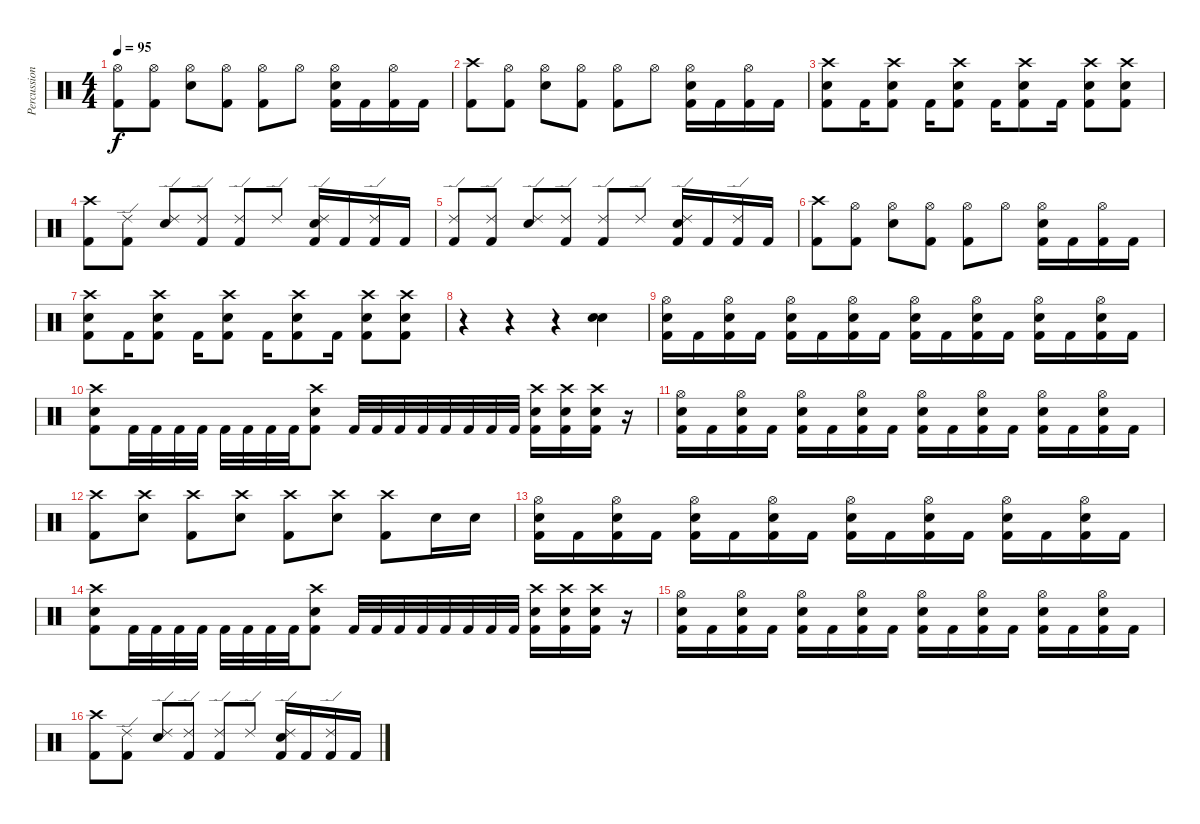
\track ("Percussions" "Percussion") {instrument percussion}
\staff {score}
\articulation defaults
\ts (4 4)
\tempo 95
\clef neutral
\ks c
("Hi-Hat (open)" "Kick (hit) 2").8{dy f} ("Hi-Hat (open)" "Kick (hit) 2").8 ("Hi-Hat (open)" "Snare (hit) 2").8 ("Hi-Hat (open)" "Kick (hit) 2").8 ("Hi-Hat (open)" "Kick (hit) 2").8 "Hi-Hat (open)".8 ("Snare (hit) 2" "Hi-Hat (open)" "Kick (hit) 2").16 "Kick (hit) 2".16 ("Hi-Hat (open)" "Kick (hit) 2").16 "Kick (hit) 2".16 |
("Crash high (hit)" "Kick (hit) 2").8 ("Hi-Hat (open)" "Kick (hit) 2").8 ("Hi-Hat (open)" "Snare (hit) 2").8 ("Hi-Hat (open)" "Kick (hit) 2").8 ("Hi-Hat (open)" "Kick (hit) 2").8 "Hi-Hat (open)".8 ("Snare (hit) 2" "Hi-Hat (open)" "Kick (hit) 2").16 "Kick (hit) 2".16 ("Hi-Hat (open)" "Kick (hit) 2").16 "Kick (hit) 2".16 |
("Crash high (hit)" "Snare (hit) 2" "Kick (hit) 2").8 "Kick (hit) 2".16 ("Crash high (hit)" "Snare (hit) 2" "Kick (hit) 2").8 "Kick (hit) 2".16 ("Crash high (hit)" "Snare (hit) 2" "Kick (hit) 2").8 "Kick (hit) 2".16 ("Crash high (hit)" "Snare (hit) 2" "Kick (hit) 2").8 "Kick (hit) 2".16 ("Crash high (hit)" "Snare (hit) 2" "Kick (hit) 2").8 ("Crash high (hit)" "Snare (hit) 2" "Kick (hit) 2").8 |
("Crash high (hit)" "Kick (hit) 2").8 ("Ride (edge) 2" "Kick (hit) 2").8 ("Ride (edge) 2" "Snare (hit) 2").8 ("Ride (edge) 2" "Kick (hit) 2").8 ("Ride (edge) 2" "Kick (hit) 2").8 "Ride (edge) 2".8 ("Snare (hit) 2" "Ride (edge) 2" "Kick (hit) 2").16 "Kick (hit) 2".16 ("Ride (edge) 2" "Kick (hit) 2").16 "Kick (hit) 2".16 |
("Ride (edge) 2" "Kick (hit) 2").8 ("Ride (edge) 2" "Kick (hit) 2").8 ("Ride (edge) 2" "Snare (hit) 2").8 ("Ride (edge) 2" "Kick (hit) 2").8 ("Ride (edge) 2" "Kick (hit) 2").8 "Ride (edge) 2".8 ("Snare (hit) 2" "Ride (edge) 2" "Kick (hit) 2").16 "Kick (hit) 2".16 ("Ride (edge) 2" "Kick (hit) 2").16 "Kick (hit) 2".16 |
("Crash high (hit)" "Kick (hit) 2").8 ("Hi-Hat (open)" "Kick (hit) 2").8 ("Hi-Hat (open)" "Snare (hit) 2").8 ("Hi-Hat (open)" "Kick (hit) 2").8 ("Hi-Hat (open)" "Kick (hit) 2").8 "Hi-Hat (open)".8 ("Snare (hit) 2" "Hi-Hat (open)" "Kick (hit) 2").16 "Kick (hit) 2".16 ("Hi-Hat (open)" "Kick (hit) 2").16 "Kick (hit) 2".16 |
("Crash high (hit)" "Snare (hit) 2" "Kick (hit) 2").8 "Kick (hit) 2".16 ("Crash high (hit)" "Snare (hit) 2" "Kick (hit) 2").8 "Kick (hit) 2".16 ("Crash high (hit)" "Snare (hit) 2" "Kick (hit) 2").8 "Kick (hit) 2".16 ("Crash high (hit)" "Snare (hit) 2" "Kick (hit) 2").8 "Kick (hit) 2".16 ("Crash high (hit)" "Snare (hit) 2" "Kick (hit) 2").8 ("Crash high (hit)" "Snare (hit) 2" "Kick (hit) 2").8 |
r.4 r.4 r.4 ("Snare (hit) 2" "Snare (hit) 2").4 |
("Hi-Hat (open)" "Snare (hit) 2" "Kick (hit) 2").16 "Kick (hit) 2".16 ("Hi-Hat (open)" "Snare (hit) 2" "Kick (hit) 2").16 "Kick (hit) 2".16 ("Hi-Hat (open)" "Snare (hit) 2" "Kick (hit) 2").16 "Kick (hit) 2".16 ("Hi-Hat (open)" "Snare (hit) 2" "Kick (hit) 2").16 "Kick (hit) 2".16 ("Hi-Hat (open)" "Snare (hit) 2" "Kick (hit) 2").16 "Kick (hit) 2".16 ("Hi-Hat (open)" "Snare (hit) 2" "Kick (hit) 2").16 "Kick (hit) 2".16 ("Hi-Hat (open)" "Snare (hit) 2" "Kick (hit) 2").16 "Kick (hit) 2".16 ("Hi-Hat (open)" "Snare (hit) 2" "Kick (hit) 2").16 "Kick (hit) 2".16 |
("Crash high (hit)" "Snare (hit) 2" "Kick (hit) 2").8 "Kick (hit) 2".32 "Kick (hit) 2".32 "Kick (hit) 2".32 "Kick (hit) 2".32 "Kick (hit) 2".32 "Kick (hit) 2".32 "Kick (hit) 2".32 "Kick (hit) 2".32 ("Crash high (hit)" "Snare (hit) 2" "Kick (hit) 2").8 "Kick (hit) 2".32 "Kick (hit) 2".32 "Kick (hit) 2".32 "Kick (hit) 2".32 "Kick (hit) 2".32 "Kick (hit) 2".32 "Kick (hit) 2".32 "Kick (hit) 2".32 ("Crash high (hit)" "Snare (hit) 2" "Kick (hit) 2").16 ("Crash high (hit)" "Snare (hit) 2" "Kick (hit) 2").16 ("Crash high (hit)" "Snare (hit) 2" "Kick (hit) 2").16 r.16 |
("Hi-Hat (open)" "Snare (hit) 2" "Kick (hit) 2").16 "Kick (hit) 2".16 ("Hi-Hat (open)" "Snare (hit) 2" "Kick (hit) 2").16 "Kick (hit) 2".16 ("Hi-Hat (open)" "Snare (hit) 2" "Kick (hit) 2").16 "Kick (hit) 2".16 ("Hi-Hat (open)" "Snare (hit) 2" "Kick (hit) 2").16 "Kick (hit) 2".16 ("Hi-Hat (open)" "Snare (hit) 2" "Kick (hit) 2").16 "Kick (hit) 2".16 ("Hi-Hat (open)" "Snare (hit) 2" "Kick (hit) 2").16 "Kick (hit) 2".16 ("Hi-Hat (open)" "Snare (hit) 2" "Kick (hit) 2").16 "Kick (hit) 2".16 ("Hi-Hat (open)" "Snare (hit) 2" "Kick (hit) 2").16 "Kick (hit) 2".16 |
("Crash high (hit)" "Kick (hit) 2").8 ("Crash high (hit)" "Snare (hit) 2").8 ("Crash high (hit)" "Kick (hit) 2").8 ("Crash high (hit)" "Snare (hit) 2").8 ("Crash high (hit)" "Kick (hit) 2").8 ("Crash high (hit)" "Snare (hit) 2").8 ("Crash high (hit)" "Kick (hit) 2").8 "Snare (hit) 2".16 "Snare (hit) 2".16 |
("Hi-Hat (open)" "Snare (hit) 2" "Kick (hit) 2").16 "Kick (hit) 2".16 ("Hi-Hat (open)" "Snare (hit) 2" "Kick (hit) 2").16 "Kick (hit) 2".16 ("Hi-Hat (open)" "Snare (hit) 2" "Kick (hit) 2").16 "Kick (hit) 2".16 ("Hi-Hat (open)" "Snare (hit) 2" "Kick (hit) 2").16 "Kick (hit) 2".16 ("Hi-Hat (open)" "Snare (hit) 2" "Kick (hit) 2").16 "Kick (hit) 2".16 ("Hi-Hat (open)" "Snare (hit) 2" "Kick (hit) 2").16 "Kick (hit) 2".16 ("Hi-Hat (open)" "Snare (hit) 2" "Kick (hit) 2").16 "Kick (hit) 2".16 ("Hi-Hat (open)" "Snare (hit) 2" "Kick (hit) 2").16 "Kick (hit) 2".16 |
("Crash high (hit)" "Snare (hit) 2" "Kick (hit) 2").8 "Kick (hit) 2".32 "Kick (hit) 2".32 "Kick (hit) 2".32 "Kick (hit) 2".32 "Kick (hit) 2".32 "Kick (hit) 2".32 "Kick (hit) 2".32 "Kick (hit) 2".32 ("Crash high (hit)" "Snare (hit) 2" "Kick (hit) 2").8 "Kick (hit) 2".32 "Kick (hit) 2".32 "Kick (hit) 2".32 "Kick (hit) 2".32 "Kick (hit) 2".32 "Kick (hit) 2".32 "Kick (hit) 2".32 "Kick (hit) 2".32 ("Crash high (hit)" "Snare (hit) 2" "Kick (hit) 2").16 ("Crash high (hit)" "Snare (hit) 2" "Kick (hit) 2").16 ("Crash high (hit)" "Snare (hit) 2" "Kick (hit) 2").16 r.16 |
("Hi-Hat (open)" "Snare (hit) 2" "Kick (hit) 2").16 "Kick (hit) 2".16 ("Hi-Hat (open)" "Snare (hit) 2" "Kick (hit) 2").16 "Kick (hit) 2".16 ("Hi-Hat (open)" "Snare (hit) 2" "Kick (hit) 2").16 "Kick (hit) 2".16 ("Hi-Hat (open)" "Snare (hit) 2" "Kick (hit) 2").16 "Kick (hit) 2".16 ("Hi-Hat (open)" "Snare (hit) 2" "Kick (hit) 2").16 "Kick (hit) 2".16 ("Hi-Hat (open)" "Snare (hit) 2" "Kick (hit) 2").16 "Kick (hit) 2".16 ("Hi-Hat (open)" "Snare (hit) 2" "Kick (hit) 2").16 "Kick (hit) 2".16 ("Hi-Hat (open)" "Snare (hit) 2" "Kick (hit) 2").16 "Kick (hit) 2".16 |
("Crash high (hit)" "Kick (hit) 2").8 ("Ride (edge) 2" "Kick (hit) 2").8 ("Ride (edge) 2" "Snare (hit) 2").8 ("Ride (edge) 2" "Kick (hit) 2").8 ("Ride (edge) 2" "Kick (hit) 2").8 "Ride (edge) 2".8 ("Snare (hit) 2" "Ride (edge) 2" "Kick (hit) 2").16 "Kick (hit) 2".16 ("Ride (edge) 2" "Kick (hit) 2").16 "Kick (hit) 2".16
